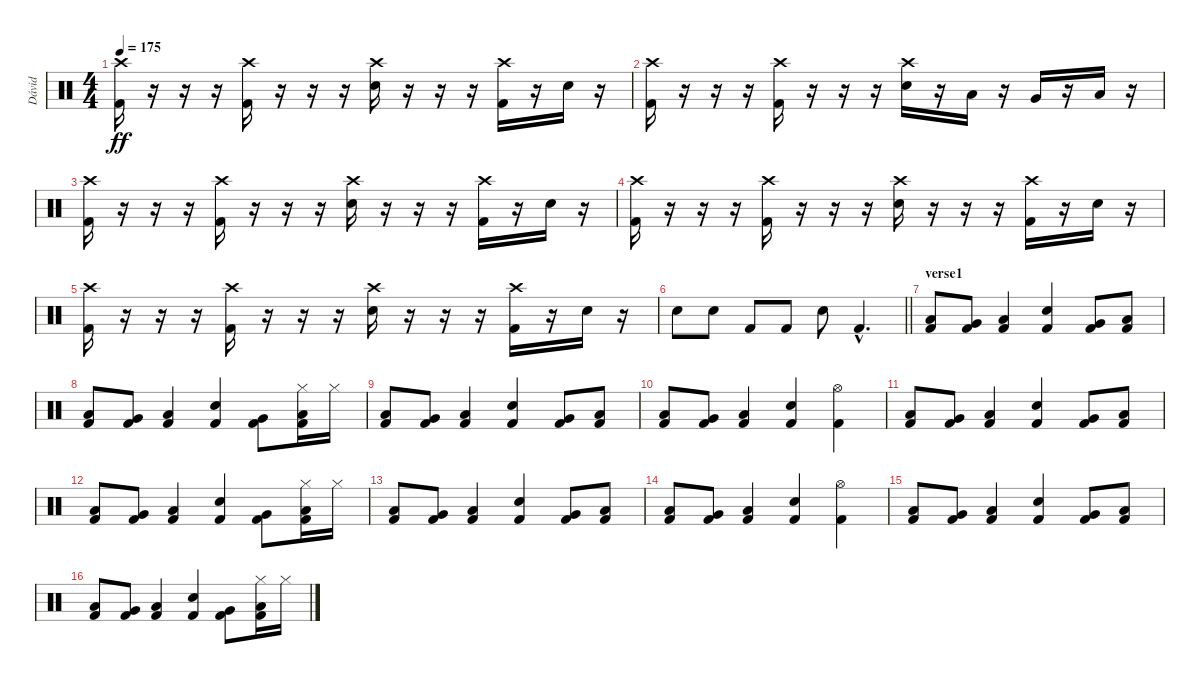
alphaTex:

\track ("Dávid" "Dávid") {instrument percussion}
\staff {score}
\articulation defaults
\ts (4 4)
\tempo 175
\clef neutral
\ks c
("Crash high (hit)" "Kick (hit) 2").16{dy ff} r.16 r.16 r.16 ("Crash high (hit)" "Kick (hit) 2").16 r.16 r.16 r.16 ("Crash high (hit)" "Electric Snare (hit)").16 r.16 r.16 r.16 ("Crash high (hit)" "Kick (hit) 2").16 r.16 "Electric Snare (hit)".16 r.16 |
("Crash high (hit)" "Kick (hit) 2").16 r.16 r.16 r.16 ("Crash high (hit)" "Kick (hit) 2").16 r.16 r.16 r.16 ("Crash high (hit)" "Electric Snare (hit)").16 r.16 "Low Tom (hit)".16 r.16 "Very Low Tom (hit)".16 r.16 "Low Floor Tom (hit)".16 r.16 |
("Crash high (hit)" "Kick (hit) 2").16 r.16 r.16 r.16 ("Crash high (hit)" "Kick (hit) 2").16 r.16 r.16 r.16 ("Crash high (hit)" "Electric Snare (hit)").16 r.16 r.16 r.16 ("Crash high (hit)" "Kick (hit) 2").16 r.16 "Electric Snare (hit)".16 r.16 |
("Crash high (hit)" "Kick (hit) 2").16 r.16 r.16 r.16 ("Crash high (hit)" "Kick (hit) 2").16 r.16 r.16 r.16 ("Crash high (hit)" "Electric Snare (hit)").16 r.16 r.16 r.16 ("Crash high (hit)" "Kick (hit) 2").16 r.16 "Electric Snare (hit)".16 r.16 |
("Crash high (hit)" "Kick (hit) 2").16 r.16 r.16 r.16 ("Crash high (hit)" "Kick (hit) 2").16 r.16 r.16 r.16 ("Crash high (hit)" "Electric Snare (hit)").16 r.16 r.16 r.16 ("Crash high (hit)" "Kick (hit) 2").16 r.16 "Electric Snare (hit)".16 r.16 |
\barLineRight lightlight "Electric Snare (hit)".8 "Electric Snare (hit)".8 "Kick (hit) 2".8 "Kick (hit) 2".8 "Electric Snare (hit)".8 "Kick (hit) 2"{hac}.4{d}
|
\section ("" "verse1")
("Low Tom (hit)" "Kick (hit) 2").8 ("Very Low Tom (hit)" "Kick (hit) 2").8 ("Low Floor Tom (hit)" "Kick (hit) 2").4 ("Electric Snare (hit)" "Kick (hit) 2").4 ("Very Low Tom (hit)" "Kick (hit) 2").8 ("Low Floor Tom (hit)" "Kick (hit) 2").8 |
("Low Tom (hit)" "Kick (hit) 2").8 ("Very Low Tom (hit)" "Kick (hit) 2").8 ("Low Floor Tom (hit)" "Kick (hit) 2").4 ("Electric Snare (hit)" "Kick (hit) 2").4 ("Very Low Tom (hit)" "Kick (hit) 2").8 ("Low Floor Tom (hit)" "Hi-Hat (closed)" "Kick (hit) 2").16 "Hi-Hat (closed)".16 |
("Low Tom (hit)" "Kick (hit) 2").8 ("Very Low Tom (hit)" "Kick (hit) 2").8 ("Low Floor Tom (hit)" "Kick (hit) 2").4 ("Electric Snare (hit)" "Kick (hit) 2").4 ("Very Low Tom (hit)" "Kick (hit) 2").8 ("Low Floor Tom (hit)" "Kick (hit) 2").8 |
("Low Tom (hit)" "Kick (hit) 2").8 ("Very Low Tom (hit)" "Kick (hit) 2").8 ("Low Floor Tom (hit)" "Kick (hit) 2").4 ("Electric Snare (hit)" "Kick (hit) 2").4 ("Hi-Hat (open)" "Kick (hit) 2").4 |
("Low Tom (hit)" "Kick (hit) 2").8 ("Very Low Tom (hit)" "Kick (hit) 2").8 ("Low Floor Tom (hit)" "Kick (hit) 2").4 ("Electric Snare (hit)" "Kick (hit) 2").4 ("Very Low Tom (hit)" "Kick (hit) 2").8 ("Low Floor Tom (hit)" "Kick (hit) 2").8 |
("Low Tom (hit)" "Kick (hit) 2").8 ("Very Low Tom (hit)" "Kick (hit) 2").8 ("Low Floor Tom (hit)" "Kick (hit) 2").4 ("Electric Snare (hit)" "Kick (hit) 2").4 ("Very Low Tom (hit)" "Kick (hit) 2").8 ("Low Floor Tom (hit)" "Hi-Hat (closed)" "Kick (hit) 2").16 "Hi-Hat (closed)".16 |
("Low Tom (hit)" "Kick (hit) 2").8 ("Very Low Tom (hit)" "Kick (hit) 2").8 ("Low Floor Tom (hit)" "Kick (hit) 2").4 ("Electric Snare (hit)" "Kick (hit) 2").4 ("Very Low Tom (hit)" "Kick (hit) 2").8 ("Low Floor Tom (hit)" "Kick (hit) 2").8 |
("Low Tom (hit)" "Kick (hit) 2").8 ("Very Low Tom (hit)" "Kick (hit) 2").8 ("Low Floor Tom (hit)" "Kick (hit) 2").4 ("Electric Snare (hit)" "Kick (hit) 2").4 ("Hi-Hat (open)" "Kick (hit) 2").4 |
("Low Tom (hit)" "Kick (hit) 2").8 ("Very Low Tom (hit)" "Kick (hit) 2").8 ("Low Floor Tom (hit)" "Kick (hit) 2").4 ("Electric Snare (hit)" "Kick (hit) 2").4 ("Very Low Tom (hit)" "Kick (hit) 2").8 ("Low Floor Tom (hit)" "Kick (hit) 2").8 |
("Low Tom (hit)" "Kick (hit) 2").8 ("Very Low Tom (hit)" "Kick (hit) 2").8 ("Low Floor Tom (hit)" "Kick (hit) 2").4 ("Electric Snare (hit)" "Kick (hit) 2").4 ("Very Low Tom (hit)" "Kick (hit) 2").8 ("Low Floor Tom (hit)" "Hi-Hat (closed)" "Kick (hit) 2").16 "Hi-Hat (closed)".16
